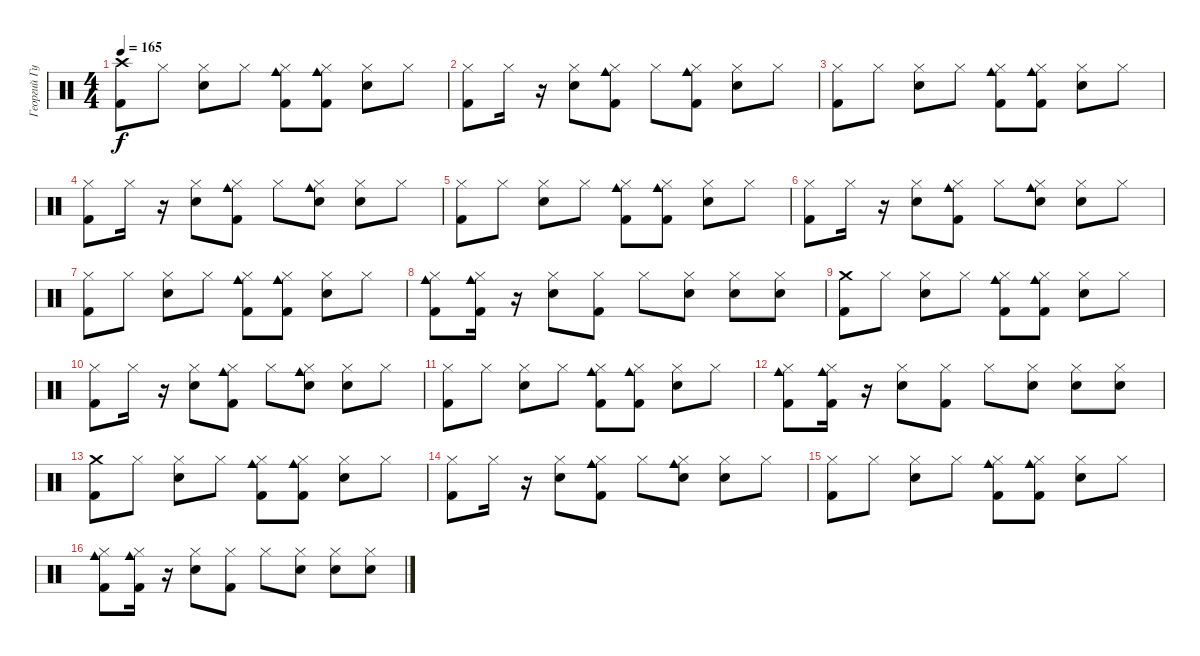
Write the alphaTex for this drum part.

\track ("Георгий Гурьянов" "Георгий Гу") {instrument percussion}
\staff {score}
\articulation defaults
\ts (4 4)
\tempo 165
\clef neutral
\ks c
("Crash high (hit)" "Kick (hit) 2").8{dy f} "Hi-Hat (closed)".8 ("Hi-Hat (closed)" "Snare (hit) 2").8 "Hi-Hat (closed)".8 ("Hi-Hat (closed)" "Cowbell medium (hit)" "Kick (hit) 2").8 ("Hi-Hat (closed)" "Cowbell medium (hit)" "Kick (hit) 2").8 ("Hi-Hat (closed)" "Snare (hit) 2").8 "Hi-Hat (closed)".8 |
("Hi-Hat (closed)" "Kick (hit) 2").8 "Hi-Hat (closed)".16 r.16 ("Hi-Hat (closed)" "Snare (hit) 2").8 ("Hi-Hat (closed)" "Kick (hit) 2" "Cowbell medium (hit)").8 "Hi-Hat (closed)".8 ("Hi-Hat (closed)" "Kick (hit) 2" "Cowbell medium (hit)").8 ("Hi-Hat (closed)" "Snare (hit) 2").8 "Hi-Hat (closed)".8 |
("Hi-Hat (closed)" "Kick (hit) 2").8 "Hi-Hat (closed)".8 ("Hi-Hat (closed)" "Snare (hit) 2").8 "Hi-Hat (closed)".8 ("Hi-Hat (closed)" "Cowbell medium (hit)" "Kick (hit) 2").8 ("Hi-Hat (closed)" "Cowbell medium (hit)" "Kick (hit) 2").8 ("Hi-Hat (closed)" "Snare (hit) 2").8 "Hi-Hat (closed)".8 |
("Hi-Hat (closed)" "Kick (hit) 2").8 "Hi-Hat (closed)".16 r.16 ("Hi-Hat (closed)" "Snare (hit) 2").8 ("Hi-Hat (closed)" "Kick (hit) 2" "Cowbell medium (hit)").8 "Hi-Hat (closed)".8 ("Hi-Hat (closed)" "Hand Clap (hit)" "Cowbell medium (hit)").8 ("Hi-Hat (closed)" "Snare (hit) 2").8 "Hi-Hat (closed)".8 |
("Hi-Hat (closed)" "Kick (hit) 2").8 "Hi-Hat (closed)".8 ("Hi-Hat (closed)" "Snare (hit) 2").8 "Hi-Hat (closed)".8 ("Hi-Hat (closed)" "Cowbell medium (hit)" "Kick (hit) 2").8 ("Hi-Hat (closed)" "Cowbell medium (hit)" "Kick (hit) 2").8 ("Hi-Hat (closed)" "Snare (hit) 2").8 "Hi-Hat (closed)".8 |
("Hi-Hat (closed)" "Kick (hit) 2").8 "Hi-Hat (closed)".16 r.16 ("Hi-Hat (closed)" "Snare (hit) 2").8 ("Hi-Hat (closed)" "Kick (hit) 2" "Cowbell medium (hit)").8 "Hi-Hat (closed)".8 ("Hi-Hat (closed)" "Hand Clap (hit)" "Cowbell medium (hit)").8 ("Hi-Hat (closed)" "Snare (hit) 2").8 "Hi-Hat (closed)".8 |
("Hi-Hat (closed)" "Kick (hit) 2").8 "Hi-Hat (closed)".8 ("Hi-Hat (closed)" "Snare (hit) 2").8 "Hi-Hat (closed)".8 ("Hi-Hat (closed)" "Cowbell medium (hit)" "Kick (hit) 2").8 ("Hi-Hat (closed)" "Cowbell medium (hit)" "Kick (hit) 2").8 ("Hi-Hat (closed)" "Snare (hit) 2").8 "Hi-Hat (closed)".8 |
("Cowbell medium (hit)" "Hi-Hat (closed)" "Kick (hit) 2").8 ("Cowbell medium (hit)" "Kick (hit) 2" "Hi-Hat (closed)").16 r.16 ("Hi-Hat (closed)" "Snare (hit) 2").8 ("Hi-Hat (closed)" "Kick (hit) 2").8 "Hi-Hat (closed)".8 ("Hi-Hat (closed)" "Snare (hit) 2").8 ("Hi-Hat (closed)" "Snare (hit) 2").8 ("Snare (hit) 2" "Hi-Hat (closed)").8 |
("Crash medium (hit)" "Kick (hit) 2").8 "Hi-Hat (closed)".8 ("Hi-Hat (closed)" "Snare (hit) 2").8 "Hi-Hat (closed)".8 ("Hi-Hat (closed)" "Cowbell medium (hit)" "Kick (hit) 2").8 ("Hi-Hat (closed)" "Cowbell medium (hit)" "Kick (hit) 2").8 ("Hi-Hat (closed)" "Snare (hit) 2").8 "Hi-Hat (closed)".8 |
("Hi-Hat (closed)" "Kick (hit) 2").8 "Hi-Hat (closed)".16 r.16 ("Hi-Hat (closed)" "Snare (hit) 2").8 ("Hi-Hat (closed)" "Kick (hit) 2" "Cowbell medium (hit)").8 "Hi-Hat (closed)".8 ("Hi-Hat (closed)" "Hand Clap (hit)" "Cowbell medium (hit)").8 ("Hi-Hat (closed)" "Snare (hit) 2").8 "Hi-Hat (closed)".8 |
("Hi-Hat (closed)" "Kick (hit) 2").8 "Hi-Hat (closed)".8 ("Hi-Hat (closed)" "Snare (hit) 2").8 "Hi-Hat (closed)".8 ("Hi-Hat (closed)" "Cowbell medium (hit)" "Kick (hit) 2").8 ("Hi-Hat (closed)" "Cowbell medium (hit)" "Kick (hit) 2").8 ("Hi-Hat (closed)" "Snare (hit) 2").8 "Hi-Hat (closed)".8 |
("Cowbell medium (hit)" "Hi-Hat (closed)" "Kick (hit) 2").8 ("Cowbell medium (hit)" "Kick (hit) 2" "Hi-Hat (closed)").16 r.16 ("Hi-Hat (closed)" "Snare (hit) 2").8 ("Hi-Hat (closed)" "Kick (hit) 2").8 "Hi-Hat (closed)".8 ("Hi-Hat (closed)" "Snare (hit) 2").8 ("Hi-Hat (closed)" "Snare (hit) 2").8 ("Snare (hit) 2" "Hi-Hat (closed)").8 |
("Crash medium (hit)" "Kick (hit) 2").8 "Hi-Hat (closed)".8 ("Hi-Hat (closed)" "Snare (hit) 2").8 "Hi-Hat (closed)".8 ("Hi-Hat (closed)" "Cowbell medium (hit)" "Kick (hit) 2").8 ("Hi-Hat (closed)" "Cowbell medium (hit)" "Kick (hit) 2").8 ("Hi-Hat (closed)" "Snare (hit) 2").8 "Hi-Hat (closed)".8 |
("Hi-Hat (closed)" "Kick (hit) 2").8 "Hi-Hat (closed)".16 r.16 ("Hi-Hat (closed)" "Snare (hit) 2").8 ("Hi-Hat (closed)" "Kick (hit) 2" "Cowbell medium (hit)").8 "Hi-Hat (closed)".8 ("Hi-Hat (closed)" "Hand Clap (hit)" "Cowbell medium (hit)").8 ("Hi-Hat (closed)" "Snare (hit) 2").8 "Hi-Hat (closed)".8 |
("Hi-Hat (closed)" "Kick (hit) 2").8 "Hi-Hat (closed)".8 ("Hi-Hat (closed)" "Snare (hit) 2").8 "Hi-Hat (closed)".8 ("Hi-Hat (closed)" "Cowbell medium (hit)" "Kick (hit) 2").8 ("Hi-Hat (closed)" "Cowbell medium (hit)" "Kick (hit) 2").8 ("Hi-Hat (closed)" "Snare (hit) 2").8 "Hi-Hat (closed)".8 |
("Cowbell medium (hit)" "Hi-Hat (closed)" "Kick (hit) 2").8 ("Cowbell medium (hit)" "Kick (hit) 2" "Hi-Hat (closed)").16 r.16 ("Hi-Hat (closed)" "Snare (hit) 2").8 ("Hi-Hat (closed)" "Kick (hit) 2").8 "Hi-Hat (closed)".8 ("Hi-Hat (closed)" "Snare (hit) 2").8 ("Hi-Hat (closed)" "Snare (hit) 2").8 ("Snare (hit) 2" "Hi-Hat (closed)").8
